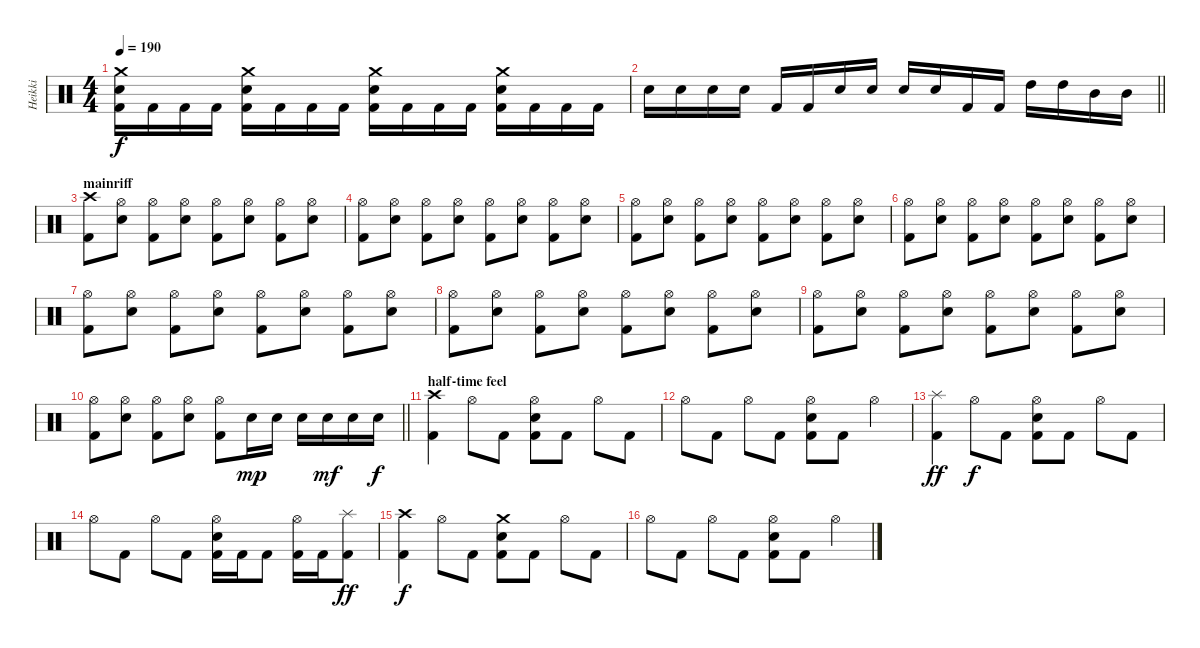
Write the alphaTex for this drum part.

\track ("Heikki" "Heikki") {instrument percussion}
\staff {score}
\articulation defaults
\ts (4 4)
\tempo 190
\clef neutral
\ks c
("Crash medium (hit)" "Electric Snare (hit)" "Kick (hit) 2").16{dy f} "Kick (hit) 2".16 "Kick (hit) 2".16 "Kick (hit) 2".16 ("Crash medium (hit)" "Electric Snare (hit)" "Kick (hit) 2").16 "Kick (hit) 2".16 "Kick (hit) 2".16 "Kick (hit) 2".16 ("Crash medium (hit)" "Electric Snare (hit)" "Kick (hit) 2").16 "Kick (hit) 2".16 "Kick (hit) 2".16 "Kick (hit) 2".16 ("Crash medium (hit)" "Electric Snare (hit)" "Kick (hit) 2").16 "Kick (hit) 2".16 "Kick (hit) 2".16 "Kick (hit) 2".16 |
\barLineRight lightlight "Electric Snare (hit)".16 "Electric Snare (hit)".16 "Electric Snare (hit)".16 "Electric Snare (hit)".16 "Kick (hit) 2".16 "Kick (hit) 2".16 "Electric Snare (hit)".16 "Electric Snare (hit)".16 "Electric Snare (hit)".16 "Electric Snare (hit)".16 "Kick (hit) 2".16 "Kick (hit) 2".16 "High Tom (hit)".16 "High Tom (hit)".16 "Mid Tom (hit)".16 "Mid Tom (hit)".16
|
\section ("" "mainriff")
("Crash high (hit)" "Kick (hit) 2").8 ("Hi-Hat (open)" "Electric Snare (hit)").8 ("Hi-Hat (open)" "Kick (hit) 2").8 ("Hi-Hat (open)" "Electric Snare (hit)").8 ("Hi-Hat (open)" "Kick (hit) 2").8 ("Hi-Hat (open)" "Electric Snare (hit)").8 ("Hi-Hat (open)" "Kick (hit) 2").8 ("Hi-Hat (open)" "Electric Snare (hit)").8 |
("Hi-Hat (open)" "Kick (hit) 2").8 ("Hi-Hat (open)" "Electric Snare (hit)").8 ("Hi-Hat (open)" "Kick (hit) 2").8 ("Hi-Hat (open)" "Electric Snare (hit)").8 ("Hi-Hat (open)" "Kick (hit) 2").8 ("Hi-Hat (open)" "Electric Snare (hit)").8 ("Hi-Hat (open)" "Kick (hit) 2").8 ("Hi-Hat (open)" "Electric Snare (hit)").8 |
("Hi-Hat (open)" "Kick (hit) 2").8 ("Hi-Hat (open)" "Electric Snare (hit)").8 ("Hi-Hat (open)" "Kick (hit) 2").8 ("Hi-Hat (open)" "Electric Snare (hit)").8 ("Hi-Hat (open)" "Kick (hit) 2").8 ("Hi-Hat (open)" "Electric Snare (hit)").8 ("Hi-Hat (open)" "Kick (hit) 2").8 ("Hi-Hat (open)" "Electric Snare (hit)").8 |
("Hi-Hat (open)" "Kick (hit) 2").8 ("Hi-Hat (open)" "Electric Snare (hit)").8 ("Hi-Hat (open)" "Kick (hit) 2").8 ("Hi-Hat (open)" "Electric Snare (hit)").8 ("Hi-Hat (open)" "Kick (hit) 2").8 ("Hi-Hat (open)" "Electric Snare (hit)").8 ("Hi-Hat (open)" "Kick (hit) 2").8 ("Hi-Hat (open)" "Electric Snare (hit)").8 |
("Hi-Hat (open)" "Kick (hit) 2").8 ("Hi-Hat (open)" "Electric Snare (hit)").8 ("Hi-Hat (open)" "Kick (hit) 2").8 ("Hi-Hat (open)" "Electric Snare (hit)").8 ("Hi-Hat (open)" "Kick (hit) 2").8 ("Hi-Hat (open)" "Electric Snare (hit)").8 ("Hi-Hat (open)" "Kick (hit) 2").8 ("Hi-Hat (open)" "Electric Snare (hit)").8 |
("Hi-Hat (open)" "Kick (hit) 2").8 ("Hi-Hat (open)" "Electric Snare (hit)").8 ("Hi-Hat (open)" "Kick (hit) 2").8 ("Hi-Hat (open)" "Electric Snare (hit)").8 ("Hi-Hat (open)" "Kick (hit) 2").8 ("Hi-Hat (open)" "Electric Snare (hit)").8 ("Hi-Hat (open)" "Kick (hit) 2").8 ("Hi-Hat (open)" "Electric Snare (hit)").8 |
("Hi-Hat (open)" "Kick (hit) 2").8 ("Hi-Hat (open)" "Electric Snare (hit)").8 ("Hi-Hat (open)" "Kick (hit) 2").8 ("Hi-Hat (open)" "Electric Snare (hit)").8 ("Hi-Hat (open)" "Kick (hit) 2").8 ("Hi-Hat (open)" "Electric Snare (hit)").8 ("Hi-Hat (open)" "Kick (hit) 2").8 ("Hi-Hat (open)" "Electric Snare (hit)").8 |
\barLineRight lightlight
("Hi-Hat (open)" "Kick (hit) 2").8 ("Hi-Hat (open)" "Electric Snare (hit)").8 ("Hi-Hat (open)" "Kick (hit) 2").8 ("Hi-Hat (open)" "Electric Snare (hit)").8 ("Hi-Hat (open)" "Kick (hit) 2").8 "Electric Snare (hit)".16{dy mp} "Electric Snare (hit)".16 "Electric Snare (hit)".16 "Electric Snare (hit)".16{dy mf} "Electric Snare (hit)".16 "Electric Snare (hit)".16{dy f} |
\section ("" "half-time feel")
("Crash high (hit)" "Kick (hit) 2").4 "Hi-Hat (open)".8 "Kick (hit) 2".8 ("Hi-Hat (open)" "Electric Snare (hit)" "Kick (hit) 2").8 "Kick (hit) 2".8 "Hi-Hat (open)".8 "Kick (hit) 2".8 |
"Hi-Hat (open)".8 "Kick (hit) 2".8 "Hi-Hat (open)".8 "Kick (hit) 2".8 ("Hi-Hat (open)" "Electric Snare (hit)" "Kick (hit) 2").8 "Kick (hit) 2".8 "Hi-Hat (open)".4 |
("Splash (hit)" "Kick (hit) 2").4{dy ff} "Hi-Hat (open)".8{dy f} "Kick (hit) 2".8 ("Hi-Hat (open)" "Electric Snare (hit)" "Kick (hit) 2").8 "Kick (hit) 2".8 "Hi-Hat (open)".8 "Kick (hit) 2".8 |
"Hi-Hat (open)".8 "Kick (hit) 2".8 "Hi-Hat (open)".8 "Kick (hit) 2".8 ("Hi-Hat (open)" "Electric Snare (hit)" "Kick (hit) 2").16 "Kick (hit) 2".16 "Kick (hit) 2".8 ("Hi-Hat (open)" "Kick (hit) 2").16 "Kick (hit) 2".16 ("Splash (hit)" "Kick (hit) 2").8{dy ff} |
("Crash high (hit)" "Kick (hit) 2").4{dy f} "Hi-Hat (open)".8 "Kick (hit) 2".8 ("Crash medium (hit)" "Electric Snare (hit)" "Kick (hit) 2").8 "Kick (hit) 2".8 "Hi-Hat (open)".8 "Kick (hit) 2".8 |
"Hi-Hat (open)".8 "Kick (hit) 2".8 "Hi-Hat (open)".8 "Kick (hit) 2".8 ("Hi-Hat (open)" "Electric Snare (hit)" "Kick (hit) 2").8 "Kick (hit) 2".8 "Hi-Hat (open)".4
